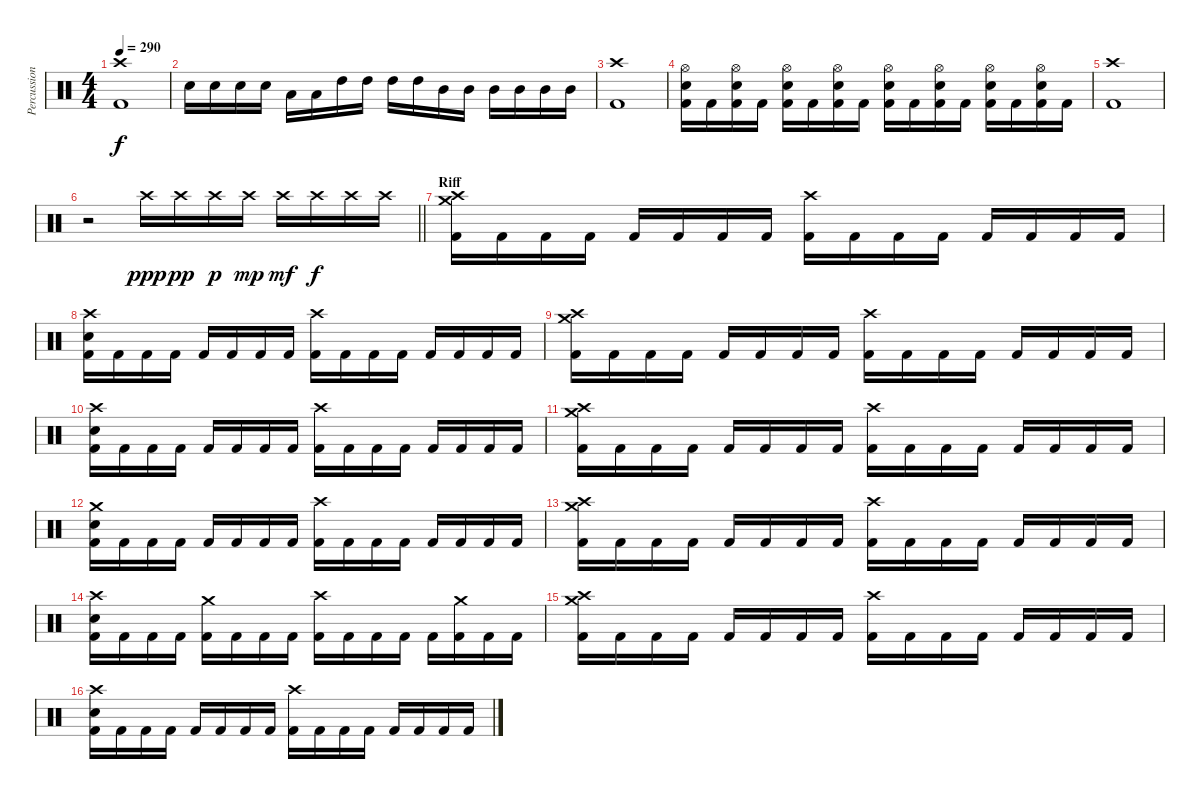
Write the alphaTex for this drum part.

\track ("Percussion" "Percussion") {instrument percussion}
\staff {score}
\articulation defaults
\ts (4 4)
\tempo 290
\clef neutral
\ks c
("Crash high (hit)" "Kick (hit) 2").1{dy f} |
"Electric Snare (hit)".16 "Electric Snare (hit)".16 "Electric Snare (hit)".16 "Electric Snare (hit)".16 "Low Tom (hit)".16 "Low Tom (hit)".16 "High Tom (hit)".16 "High Tom (hit)".16 "High Tom (hit)".16 "High Tom (hit)".16 "Mid Tom (hit)".16 "Mid Tom (hit)".16 "Mid Tom (hit)".16 "Mid Tom (hit)".16 "Mid Tom (hit)".16 "Mid Tom (hit)".16 |
("Crash high (hit)" "Kick (hit) 2").1 |
("Hi-Hat (open)" "Electric Snare (hit)" "Kick (hit) 2").16 "Kick (hit) 2".16 ("Hi-Hat (open)" "Electric Snare (hit)" "Kick (hit) 2").16 "Kick (hit) 2".16 ("Hi-Hat (open)" "Electric Snare (hit)" "Kick (hit) 2").16 "Kick (hit) 2".16 ("Hi-Hat (open)" "Electric Snare (hit)" "Kick (hit) 2").16 "Kick (hit) 2".16 ("Hi-Hat (open)" "Electric Snare (hit)" "Kick (hit) 2").16 "Kick (hit) 2".16 ("Hi-Hat (open)" "Electric Snare (hit)" "Kick (hit) 2").16 "Kick (hit) 2".16 ("Hi-Hat (open)" "Electric Snare (hit)" "Kick (hit) 2").16 "Kick (hit) 2".16 ("Hi-Hat (open)" "Electric Snare (hit)" "Kick (hit) 2").16 "Kick (hit) 2".16 |
("Crash high (hit)" "Kick (hit) 2").1 |
\barLineRight lightlight
r.2 "Crash high (hit)".16{dy ppp} "Crash high (hit)".16{dy pp} "Crash high (hit)".16{dy p} "Crash high (hit)".16{dy mp} "Crash high (hit)".16{dy mf} "Crash high (hit)".16{dy f} "Crash high (hit)".16 "Crash high (hit)".16 |
\section ("" "Riff")
("Crash high (hit)" "Crash medium (hit)" "Kick (hit) 2").16 "Kick (hit) 2".16 "Kick (hit) 2".16 "Kick (hit) 2".16 "Kick (hit) 2".16 "Kick (hit) 2".16 "Kick (hit) 2".16 "Kick (hit) 2".16 ("Crash high (hit)" "Kick (hit) 2").16 "Kick (hit) 2".16 "Kick (hit) 2".16 "Kick (hit) 2".16 "Kick (hit) 2".16 "Kick (hit) 2".16 "Kick (hit) 2".16 "Kick (hit) 2".16 |
("Crash high (hit)" "Electric Snare (hit)" "Kick (hit) 2").16 "Kick (hit) 2".16 "Kick (hit) 2".16 "Kick (hit) 2".16 "Kick (hit) 2".16 "Kick (hit) 2".16 "Kick (hit) 2".16 "Kick (hit) 2".16 ("Crash high (hit)" "Kick (hit) 2").16 "Kick (hit) 2".16 "Kick (hit) 2".16 "Kick (hit) 2".16 "Kick (hit) 2".16 "Kick (hit) 2".16 "Kick (hit) 2".16 "Kick (hit) 2".16 |
("Crash high (hit)" "Crash medium (hit)" "Kick (hit) 2").16 "Kick (hit) 2".16 "Kick (hit) 2".16 "Kick (hit) 2".16 "Kick (hit) 2".16 "Kick (hit) 2".16 "Kick (hit) 2".16 "Kick (hit) 2".16 ("Crash high (hit)" "Kick (hit) 2").16 "Kick (hit) 2".16 "Kick (hit) 2".16 "Kick (hit) 2".16 "Kick (hit) 2".16 "Kick (hit) 2".16 "Kick (hit) 2".16 "Kick (hit) 2".16 |
("Crash high (hit)" "Electric Snare (hit)" "Kick (hit) 2").16 "Kick (hit) 2".16 "Kick (hit) 2".16 "Kick (hit) 2".16 "Kick (hit) 2".16 "Kick (hit) 2".16 "Kick (hit) 2".16 "Kick (hit) 2".16 ("Crash high (hit)" "Kick (hit) 2").16 "Kick (hit) 2".16 "Kick (hit) 2".16 "Kick (hit) 2".16 "Kick (hit) 2".16 "Kick (hit) 2".16 "Kick (hit) 2".16 "Kick (hit) 2".16 |
("Crash high (hit)" "Crash medium (hit)" "Kick (hit) 2").16 "Kick (hit) 2".16 "Kick (hit) 2".16 "Kick (hit) 2".16 "Kick (hit) 2".16 "Kick (hit) 2".16 "Kick (hit) 2".16 "Kick (hit) 2".16 ("Crash high (hit)" "Kick (hit) 2").16 "Kick (hit) 2".16 "Kick (hit) 2".16 "Kick (hit) 2".16 "Kick (hit) 2".16 "Kick (hit) 2".16 "Kick (hit) 2".16 "Kick (hit) 2".16 |
("Crash medium (hit)" "Electric Snare (hit)" "Kick (hit) 2").16 "Kick (hit) 2".16 "Kick (hit) 2".16 "Kick (hit) 2".16 "Kick (hit) 2".16 "Kick (hit) 2".16 "Kick (hit) 2".16 "Kick (hit) 2".16 ("Crash high (hit)" "Kick (hit) 2").16 "Kick (hit) 2".16 "Kick (hit) 2".16 "Kick (hit) 2".16 "Kick (hit) 2".16 "Kick (hit) 2".16 "Kick (hit) 2".16 "Kick (hit) 2".16 |
("Crash high (hit)" "Crash medium (hit)" "Kick (hit) 2").16 "Kick (hit) 2".16 "Kick (hit) 2".16 "Kick (hit) 2".16 "Kick (hit) 2".16 "Kick (hit) 2".16 "Kick (hit) 2".16 "Kick (hit) 2".16 ("Crash high (hit)" "Kick (hit) 2").16 "Kick (hit) 2".16 "Kick (hit) 2".16 "Kick (hit) 2".16 "Kick (hit) 2".16 "Kick (hit) 2".16 "Kick (hit) 2".16 "Kick (hit) 2".16 |
("Crash high (hit)" "Electric Snare (hit)" "Kick (hit) 2").16 "Kick (hit) 2".16 "Kick (hit) 2".16 "Kick (hit) 2".16 ("Crash medium (hit)" "Kick (hit) 2").16 "Kick (hit) 2".16 "Kick (hit) 2".16 "Kick (hit) 2".16 ("Crash high (hit)" "Kick (hit) 2").16 "Kick (hit) 2".16 "Kick (hit) 2".16 "Kick (hit) 2".16 "Kick (hit) 2".16 ("Crash medium (hit)" "Kick (hit) 2").16 "Kick (hit) 2".16 "Kick (hit) 2".16 |
("Crash high (hit)" "Crash medium (hit)" "Kick (hit) 2").16 "Kick (hit) 2".16 "Kick (hit) 2".16 "Kick (hit) 2".16 "Kick (hit) 2".16 "Kick (hit) 2".16 "Kick (hit) 2".16 "Kick (hit) 2".16 ("Crash high (hit)" "Kick (hit) 2").16 "Kick (hit) 2".16 "Kick (hit) 2".16 "Kick (hit) 2".16 "Kick (hit) 2".16 "Kick (hit) 2".16 "Kick (hit) 2".16 "Kick (hit) 2".16 |
("Crash high (hit)" "Electric Snare (hit)" "Kick (hit) 2").16 "Kick (hit) 2".16 "Kick (hit) 2".16 "Kick (hit) 2".16 "Kick (hit) 2".16 "Kick (hit) 2".16 "Kick (hit) 2".16 "Kick (hit) 2".16 ("Crash high (hit)" "Kick (hit) 2").16 "Kick (hit) 2".16 "Kick (hit) 2".16 "Kick (hit) 2".16 "Kick (hit) 2".16 "Kick (hit) 2".16 "Kick (hit) 2".16 "Kick (hit) 2".16
